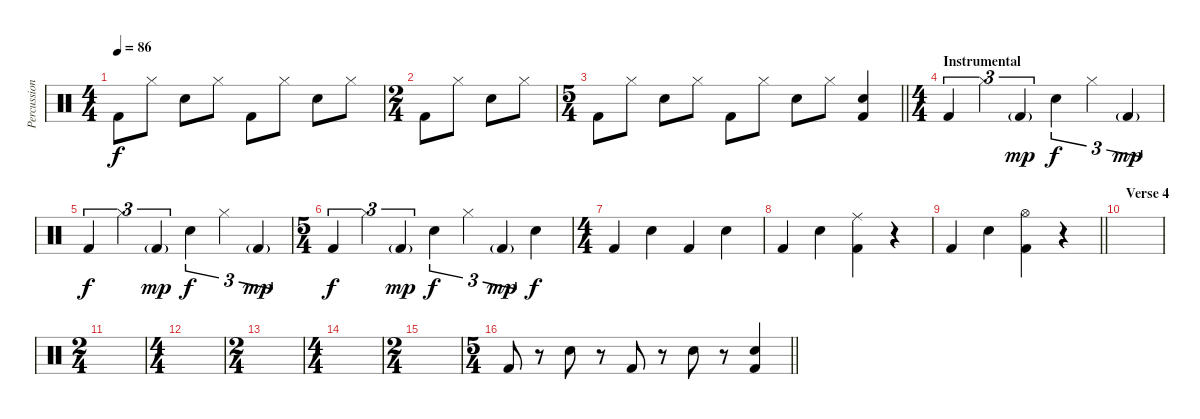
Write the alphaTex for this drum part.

\track ("Percussion" "Percussion") {instrument percussion}
\staff {score}
\articulation defaults
\ts (4 4)
\tempo 86
\clef neutral
\ks c "Kick (hit) 2".8{dy f} "Hi-Hat (closed)".8 "Snare (hit) 2".8 "Hi-Hat (closed)".8 "Kick (hit) 2".8 "Hi-Hat (closed)".8 "Snare (hit) 2".8 "Hi-Hat (closed)".8
|
\ts (2 4)
"Kick (hit) 2".8 "Hi-Hat (closed)".8 "Snare (hit) 2".8 "Hi-Hat (closed)".8 |
\ts (5 4)
\barLineRight lightlight "Kick (hit) 2".8 "Hi-Hat (closed)".8 "Snare (hit) 2".8 "Hi-Hat (closed)".8 "Kick (hit) 2".8 "Hi-Hat (closed)".8 "Snare (hit) 2".8 "Hi-Hat (closed)".8
("Snare (hit) 2" "Kick (hit) 2").4 |
\ts (4 4)
\section ("" "Instrumental")
"Kick (hit) 2".4{tu (3 2)} "Hi-Hat (closed)".4{tu (3 2)} "Kick (hit) 2"{g}.4{tu (3 2) dy mp} "Snare (hit) 2".4{tu (3 2) dy f} "Hi-Hat (closed)".4{tu (3 2)} "Kick (hit) 2"{g}.4{tu (3 2) dy mp} |
"Kick (hit) 2".4{tu (3 2) dy f} "Hi-Hat (closed)".4{tu (3 2)} "Kick (hit) 2"{g}.4{tu (3 2) dy mp} "Snare (hit) 2".4{tu (3 2) dy f} "Hi-Hat (closed)".4{tu (3 2)} "Kick (hit) 2"{g}.4{tu (3 2) dy mp} |
\ts (5 4)
"Kick (hit) 2".4{tu (3 2) dy f} "Hi-Hat (closed)".4{tu (3 2)} "Kick (hit) 2"{g}.4{tu (3 2) dy mp} "Snare (hit) 2".4{tu (3 2) dy f} "Hi-Hat (closed)".4{tu (3 2)} "Kick (hit) 2"{g}.4{tu (3 2) dy mp} "Snare (hit) 2".4{dy f} |
\ts (4 4)
"Kick (hit) 2".4 "Snare (hit) 2".4 "Kick (hit) 2".4 "Snare (hit) 2".4 |
"Kick (hit) 2".4 "Snare (hit) 2".4 ("Ride (middle)" "Kick (hit) 2").4 r.4 |
\barLineRight lightlight "Kick (hit) 2".4 "Snare (hit) 2".4
("Hi-Hat (open)" "Kick (hit) 2").4 r.4 |
\section ("" "Verse 4")
|
\ts (2 4)
|
\ts (4 4)
|
\ts (2 4)
|
\ts (4 4)
|
\ts (2 4)
|
\ts (5 4)
\barLineRight lightlight "Kick (hit) 2".8
r.8 "Snare (hit) 2".8 r.8 "Kick (hit) 2".8 r.8 "Snare (hit) 2".8 r.8 ("Snare (hit) 2" "Kick (hit) 2").4
